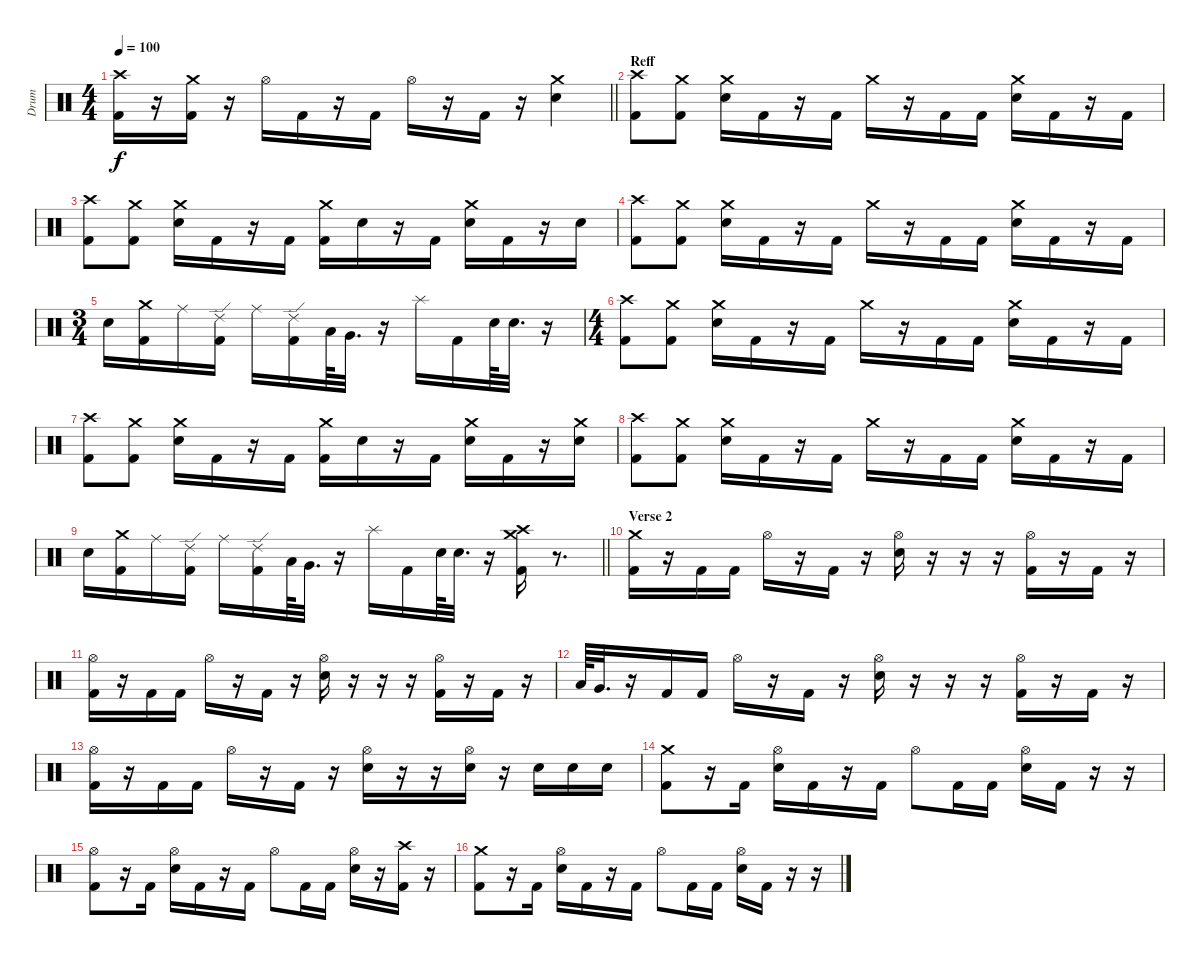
\track ("Drum" "Drum") {instrument percussion}
\staff {score}
\articulation defaults
\ts (4 4)
\tempo 100
\clef neutral
\barLineRight lightlight
\ks c
("Crash high (hit)" "Kick (hit) 2").16{dy f} r.16 ("Crash medium (hit)" "Kick (hit) 2").16 r.16 "Hi-Hat (open)".16 "Kick (hit) 2".16 r.16 "Kick (hit) 2".16 "Hi-Hat (open)".16 r.16 "Kick (hit) 2".16 r.16 ("Crash medium (hit)" "Electric Snare (hit)").4 |
\section ("" "Reff")
("Crash high (hit)" "Kick (hit) 2").8 ("Crash medium (hit)" "Kick (hit) 2").8 ("Crash medium (hit)" "Electric Snare (hit)").16 "Kick (hit) 2".16 r.16 "Kick (hit) 2".16 "Crash medium (hit)".16 r.16 "Kick (hit) 2".16 "Kick (hit) 2".16 ("Crash medium (hit)" "Electric Snare (hit)").16 "Kick (hit) 2".16 r.16 "Kick (hit) 2".16 |
("Crash high (hit)" "Kick (hit) 2").8 ("Crash medium (hit)" "Kick (hit) 2").8 ("Crash medium (hit)" "Electric Snare (hit)").16 "Kick (hit) 2".16 r.16 "Kick (hit) 2".16 ("Crash medium (hit)" "Kick (hit) 2").16 "Electric Snare (hit)".16 r.16 "Kick (hit) 2".16 ("Crash medium (hit)" "Electric Snare (hit)").16 "Kick (hit) 2".16 r.16 "Electric Snare (hit)".16 |
("Crash high (hit)" "Kick (hit) 2").8 ("Crash medium (hit)" "Kick (hit) 2").8 ("Crash medium (hit)" "Electric Snare (hit)").16 "Kick (hit) 2".16 r.16 "Kick (hit) 2".16 "Crash medium (hit)".16 r.16 "Kick (hit) 2".16 "Kick (hit) 2".16 ("Crash medium (hit)" "Electric Snare (hit)").16 "Kick (hit) 2".16 r.16 "Kick (hit) 2".16 |
\ts (3 4)
"Electric Snare (hit)".16 ("Crash medium (hit)" "Kick (hit) 2").16 "Ride (middle)".16 ("Ride (edge) 2" "Kick (hit) 2").16 "Ride (middle)".16 ("Ride (edge) 2" "Kick (hit) 2").16 "Low Tom (hit)".64 "Very Low Tom (hit)".32{d} r.16 "Splash (hit)".16 "Kick (hit) 2".16 "Electric Snare (hit)".64 "Electric Snare (hit)".32{d} r.16 |
\ts (4 4)
("Crash high (hit)" "Kick (hit) 2").8 ("Crash medium (hit)" "Kick (hit) 2").8 ("Crash medium (hit)" "Electric Snare (hit)").16 "Kick (hit) 2".16 r.16 "Kick (hit) 2".16 "Crash medium (hit)".16 r.16 "Kick (hit) 2".16 "Kick (hit) 2".16 ("Crash medium (hit)" "Electric Snare (hit)").16 "Kick (hit) 2".16 r.16 "Kick (hit) 2".16 |
("Crash high (hit)" "Kick (hit) 2").8 ("Crash medium (hit)" "Kick (hit) 2").8 ("Crash medium (hit)" "Electric Snare (hit)").16 "Kick (hit) 2".16 r.16 "Kick (hit) 2".16 ("Crash medium (hit)" "Kick (hit) 2").16 "Electric Snare (hit)".16 r.16 "Kick (hit) 2".16 ("Crash medium (hit)" "Electric Snare (hit)").16 "Kick (hit) 2".16 r.16 ("Crash medium (hit)" "Electric Snare (hit)").16 |
("Crash high (hit)" "Kick (hit) 2").8 ("Crash medium (hit)" "Kick (hit) 2").8 ("Crash medium (hit)" "Electric Snare (hit)").16 "Kick (hit) 2".16 r.16 "Kick (hit) 2".16 "Crash medium (hit)".16 r.16 "Kick (hit) 2".16 "Kick (hit) 2".16 ("Crash medium (hit)" "Electric Snare (hit)").16 "Kick (hit) 2".16 r.16 "Kick (hit) 2".16 |
\barLineRight lightlight "Electric Snare (hit)".16
("Crash medium (hit)" "Kick (hit) 2").16 "Ride (middle)".16 ("Ride (edge) 2" "Kick (hit) 2").16 "Ride (middle)".16 ("Ride (edge) 2" "Kick (hit) 2").16 "Low Tom (hit)".64 "Very Low Tom (hit)".32{d} r.16 "Splash (hit)".16 "Kick (hit) 2".16 "Electric Snare (hit)".64 "Electric Snare (hit)".32{d} r.16 ("Crash high (hit)" "Crash medium (hit)" "Kick (hit) 2").16 r.8{d} |
\section ("" "Verse 2")
("Crash medium (hit)" "Kick (hit) 2").16 r.16 "Kick (hit) 2".16 "Kick (hit) 2".16 "Hi-Hat (open)".16 r.16 "Kick (hit) 2".16 r.16 ("Hi-Hat (open)" "Electric Snare (hit)").16 r.16 r.16 r.16 ("Hi-Hat (open)" "Kick (hit) 2").16 r.16 "Kick (hit) 2".16 r.16 |
("Hi-Hat (open)" "Kick (hit) 2").16 r.16 "Kick (hit) 2".16 "Kick (hit) 2".16 "Hi-Hat (open)".16 r.16 "Kick (hit) 2".16 r.16 ("Hi-Hat (open)" "Electric Snare (hit)").16 r.16 r.16 r.16 ("Hi-Hat (open)" "Kick (hit) 2").16 r.16 "Kick (hit) 2".16 r.16 |
"Low Tom (hit)".64 "Very Low Tom (hit)".32{d} r.16 "Kick (hit) 2".16 "Kick (hit) 2".16 "Hi-Hat (open)".16 r.16 "Kick (hit) 2".16 r.16 ("Hi-Hat (open)" "Electric Snare (hit)").16 r.16 r.16 r.16 ("Hi-Hat (open)" "Kick (hit) 2").16 r.16 "Kick (hit) 2".16 r.16 |
("Hi-Hat (open)" "Kick (hit) 2").16 r.16 "Kick (hit) 2".16 "Kick (hit) 2".16 "Hi-Hat (open)".16 r.16 "Kick (hit) 2".16 r.16 ("Hi-Hat (open)" "Electric Snare (hit)").16 r.16 r.16 ("Hi-Hat (open)" "Electric Snare (hit)").16 r.16 "Electric Snare (hit)".16 "Electric Snare (hit)".16 "Electric Snare (hit)".16 |
("Crash medium (hit)" "Kick (hit) 2").8 r.16 "Kick (hit) 2".16 ("Hi-Hat (open)" "Electric Snare (hit)").16 "Kick (hit) 2".16 r.16 "Kick (hit) 2".16 "Hi-Hat (open)".8 "Kick (hit) 2".16 "Kick (hit) 2".16 ("Hi-Hat (open)" "Electric Snare (hit)").16 "Kick (hit) 2".16 r.16 r.16 |
("Hi-Hat (open)" "Kick (hit) 2").8 r.16 "Kick (hit) 2".16 ("Hi-Hat (open)" "Electric Snare (hit)").16 "Kick (hit) 2".16 r.16 "Kick (hit) 2".16 "Hi-Hat (open)".8 "Kick (hit) 2".16 "Kick (hit) 2".16 ("Hi-Hat (open)" "Electric Snare (hit)").16 r.16 ("Crash high (hit)" "Kick (hit) 2").16 r.16 |
("Crash medium (hit)" "Kick (hit) 2").8 r.16 "Kick (hit) 2".16 ("Hi-Hat (open)" "Electric Snare (hit)").16 "Kick (hit) 2".16 r.16 "Kick (hit) 2".16 "Hi-Hat (open)".8 "Kick (hit) 2".16 "Kick (hit) 2".16 ("Hi-Hat (open)" "Electric Snare (hit)").16 "Kick (hit) 2".16 r.16 r.16
